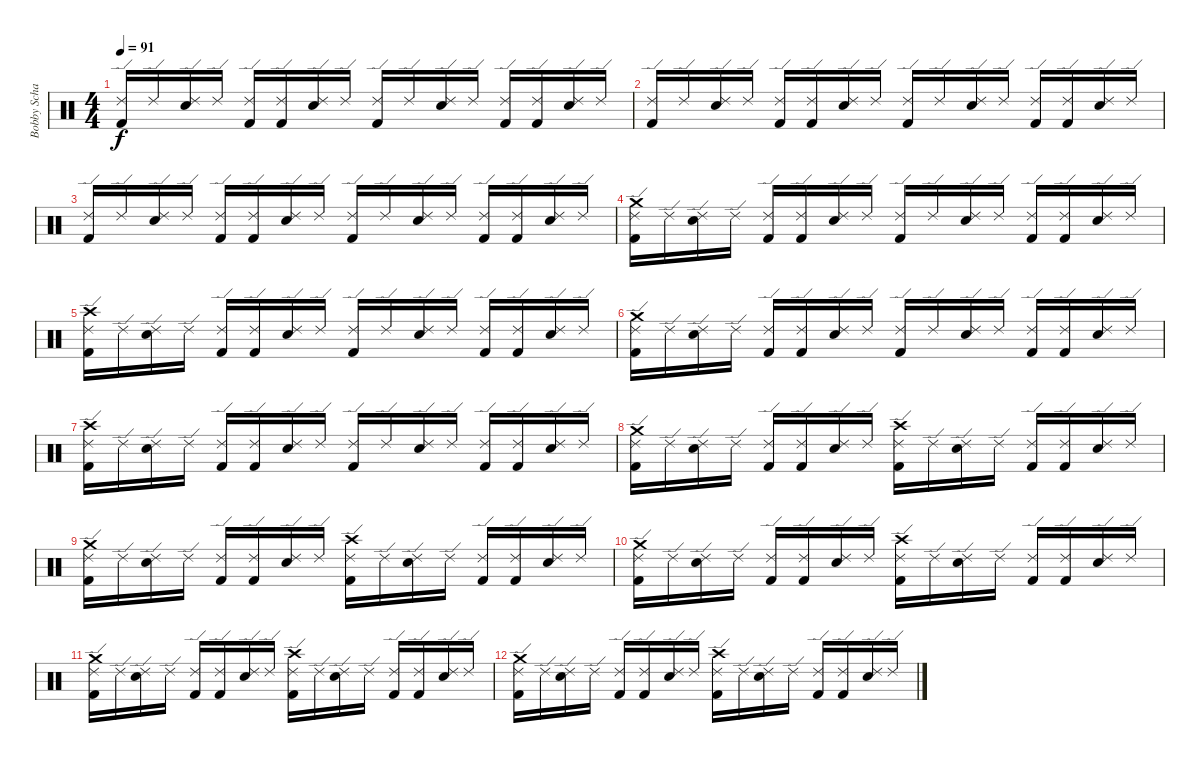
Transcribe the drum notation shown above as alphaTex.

\track ("Bobby Schayer " "Bobby Scha") {instrument percussion}
\staff {score}
\articulation defaults
\ts (4 4)
\tempo 91
\clef neutral
\ks c
("Ride (edge) 2" "Kick (hit) 2").16{dy f} "Ride (edge) 2".16 ("Ride (edge) 2" "Snare (hit) 2").16 "Ride (edge) 2".16 ("Ride (edge) 2" "Kick (hit) 2").16 ("Ride (edge) 2" "Kick (hit) 2").16 ("Ride (edge) 2" "Snare (hit) 2").16 "Ride (edge) 2".16 ("Ride (edge) 2" "Kick (hit) 2").16 "Ride (edge) 2".16 ("Ride (edge) 2" "Snare (hit) 2").16 "Ride (edge) 2".16 ("Ride (edge) 2" "Kick (hit) 2").16 ("Ride (edge) 2" "Kick (hit) 2").16 ("Ride (edge) 2" "Snare (hit) 2").16 "Ride (edge) 2".16 |
("Ride (edge) 2" "Kick (hit) 2").16 "Ride (edge) 2".16 ("Ride (edge) 2" "Snare (hit) 2").16 "Ride (edge) 2".16 ("Ride (edge) 2" "Kick (hit) 2").16 ("Ride (edge) 2" "Kick (hit) 2").16 ("Ride (edge) 2" "Snare (hit) 2").16 "Ride (edge) 2".16 ("Ride (edge) 2" "Kick (hit) 2").16 "Ride (edge) 2".16 ("Ride (edge) 2" "Snare (hit) 2").16 "Ride (edge) 2".16 ("Ride (edge) 2" "Kick (hit) 2").16 ("Ride (edge) 2" "Kick (hit) 2").16 ("Ride (edge) 2" "Snare (hit) 2").16 "Ride (edge) 2".16 |
("Ride (edge) 2" "Kick (hit) 2").16 "Ride (edge) 2".16 ("Ride (edge) 2" "Snare (hit) 2").16 "Ride (edge) 2".16 ("Ride (edge) 2" "Kick (hit) 2").16 ("Ride (edge) 2" "Kick (hit) 2").16 ("Ride (edge) 2" "Snare (hit) 2").16 "Ride (edge) 2".16 ("Ride (edge) 2" "Kick (hit) 2").16 "Ride (edge) 2".16 ("Ride (edge) 2" "Snare (hit) 2").16 "Ride (edge) 2".16 ("Ride (edge) 2" "Kick (hit) 2").16 ("Ride (edge) 2" "Kick (hit) 2").16 ("Ride (edge) 2" "Snare (hit) 2").16 "Ride (edge) 2".16 |
("Ride (edge) 2" "Crash medium (hit)" "Kick (hit) 2").16 "Ride (edge) 2".16 ("Ride (edge) 2" "Snare (hit) 2").16 "Ride (edge) 2".16 ("Ride (edge) 2" "Kick (hit) 2").16 ("Ride (edge) 2" "Kick (hit) 2").16 ("Ride (edge) 2" "Snare (hit) 2").16 "Ride (edge) 2".16 ("Ride (edge) 2" "Kick (hit) 2").16 "Ride (edge) 2".16 ("Ride (edge) 2" "Snare (hit) 2").16 "Ride (edge) 2".16 ("Ride (edge) 2" "Kick (hit) 2").16 ("Ride (edge) 2" "Kick (hit) 2").16 ("Ride (edge) 2" "Snare (hit) 2").16 "Ride (edge) 2".16 |
("Ride (edge) 2" "Crash high (hit)" "Kick (hit) 2").16 "Ride (edge) 2".16 ("Ride (edge) 2" "Snare (hit) 2").16 "Ride (edge) 2".16 ("Ride (edge) 2" "Kick (hit) 2").16 ("Ride (edge) 2" "Kick (hit) 2").16 ("Ride (edge) 2" "Snare (hit) 2").16 "Ride (edge) 2".16 ("Ride (edge) 2" "Kick (hit) 2").16 "Ride (edge) 2".16 ("Ride (edge) 2" "Snare (hit) 2").16 "Ride (edge) 2".16 ("Ride (edge) 2" "Kick (hit) 2").16 ("Ride (edge) 2" "Kick (hit) 2").16 ("Ride (edge) 2" "Snare (hit) 2").16 "Ride (edge) 2".16 |
("Ride (edge) 2" "Crash medium (hit)" "Kick (hit) 2").16 "Ride (edge) 2".16 ("Ride (edge) 2" "Snare (hit) 2").16 "Ride (edge) 2".16 ("Ride (edge) 2" "Kick (hit) 2").16 ("Ride (edge) 2" "Kick (hit) 2").16 ("Ride (edge) 2" "Snare (hit) 2").16 "Ride (edge) 2".16 ("Ride (edge) 2" "Kick (hit) 2").16 "Ride (edge) 2".16 ("Ride (edge) 2" "Snare (hit) 2").16 "Ride (edge) 2".16 ("Ride (edge) 2" "Kick (hit) 2").16 ("Ride (edge) 2" "Kick (hit) 2").16 ("Ride (edge) 2" "Snare (hit) 2").16 "Ride (edge) 2".16 |
("Ride (edge) 2" "Crash high (hit)" "Kick (hit) 2").16 "Ride (edge) 2".16 ("Ride (edge) 2" "Snare (hit) 2").16 "Ride (edge) 2".16 ("Ride (edge) 2" "Kick (hit) 2").16 ("Ride (edge) 2" "Kick (hit) 2").16 ("Ride (edge) 2" "Snare (hit) 2").16 "Ride (edge) 2".16 ("Ride (edge) 2" "Kick (hit) 2").16 "Ride (edge) 2".16 ("Ride (edge) 2" "Snare (hit) 2").16 "Ride (edge) 2".16 ("Ride (edge) 2" "Kick (hit) 2").16 ("Ride (edge) 2" "Kick (hit) 2").16 ("Ride (edge) 2" "Snare (hit) 2").16 "Ride (edge) 2".16 |
("Ride (edge) 2" "Crash medium (hit)" "Kick (hit) 2").16{volume 1} "Ride (edge) 2".16 ("Ride (edge) 2" "Snare (hit) 2").16 "Ride (edge) 2".16 ("Ride (edge) 2" "Kick (hit) 2").16 ("Ride (edge) 2" "Kick (hit) 2").16 ("Ride (edge) 2" "Snare (hit) 2").16 "Ride (edge) 2".16 ("Ride (edge) 2" "Crash high (hit)" "Kick (hit) 2").16 "Ride (edge) 2".16 ("Ride (edge) 2" "Snare (hit) 2").16 "Ride (edge) 2".16 ("Ride (edge) 2" "Kick (hit) 2").16 ("Ride (edge) 2" "Kick (hit) 2").16 ("Ride (edge) 2" "Snare (hit) 2").16 "Ride (edge) 2".16 |
("Ride (edge) 2" "Crash medium (hit)" "Kick (hit) 2").16 "Ride (edge) 2".16 ("Ride (edge) 2" "Snare (hit) 2").16 "Ride (edge) 2".16 ("Ride (edge) 2" "Kick (hit) 2").16 ("Ride (edge) 2" "Kick (hit) 2").16 ("Ride (edge) 2" "Snare (hit) 2").16 "Ride (edge) 2".16 ("Ride (edge) 2" "Crash high (hit)" "Kick (hit) 2").16 "Ride (edge) 2".16 ("Ride (edge) 2" "Snare (hit) 2").16 "Ride (edge) 2".16 ("Ride (edge) 2" "Kick (hit) 2").16 ("Ride (edge) 2" "Kick (hit) 2").16 ("Ride (edge) 2" "Snare (hit) 2").16 "Ride (edge) 2".16 |
("Ride (edge) 2" "Crash medium (hit)" "Kick (hit) 2").16 "Ride (edge) 2".16 ("Ride (edge) 2" "Snare (hit) 2").16 "Ride (edge) 2".16 ("Ride (edge) 2" "Kick (hit) 2").16 ("Ride (edge) 2" "Kick (hit) 2").16 ("Ride (edge) 2" "Snare (hit) 2").16 "Ride (edge) 2".16 ("Ride (edge) 2" "Crash high (hit)" "Kick (hit) 2").16 "Ride (edge) 2".16 ("Ride (edge) 2" "Snare (hit) 2").16 "Ride (edge) 2".16 ("Ride (edge) 2" "Kick (hit) 2").16 ("Ride (edge) 2" "Kick (hit) 2").16 ("Ride (edge) 2" "Snare (hit) 2").16 "Ride (edge) 2".16 |
("Ride (edge) 2" "Crash medium (hit)" "Kick (hit) 2").16 "Ride (edge) 2".16 ("Ride (edge) 2" "Snare (hit) 2").16 "Ride (edge) 2".16 ("Ride (edge) 2" "Kick (hit) 2").16 ("Ride (edge) 2" "Kick (hit) 2").16 ("Ride (edge) 2" "Snare (hit) 2").16 "Ride (edge) 2".16 ("Ride (edge) 2" "Crash high (hit)" "Kick (hit) 2").16 "Ride (edge) 2".16 ("Ride (edge) 2" "Snare (hit) 2").16 "Ride (edge) 2".16 ("Ride (edge) 2" "Kick (hit) 2").16 ("Ride (edge) 2" "Kick (hit) 2").16 ("Ride (edge) 2" "Snare (hit) 2").16 "Ride (edge) 2".16 |
("Ride (edge) 2" "Crash medium (hit)" "Kick (hit) 2").16 "Ride (edge) 2".16 ("Ride (edge) 2" "Snare (hit) 2").16 "Ride (edge) 2".16 ("Ride (edge) 2" "Kick (hit) 2").16 ("Ride (edge) 2" "Kick (hit) 2").16 ("Ride (edge) 2" "Snare (hit) 2").16 "Ride (edge) 2".16 ("Ride (edge) 2" "Crash high (hit)" "Kick (hit) 2").16 "Ride (edge) 2".16 ("Ride (edge) 2" "Snare (hit) 2").16 "Ride (edge) 2".16 ("Ride (edge) 2" "Kick (hit) 2").16 ("Ride (edge) 2" "Kick (hit) 2").16 ("Ride (edge) 2" "Snare (hit) 2").16 "Ride (edge) 2".16
